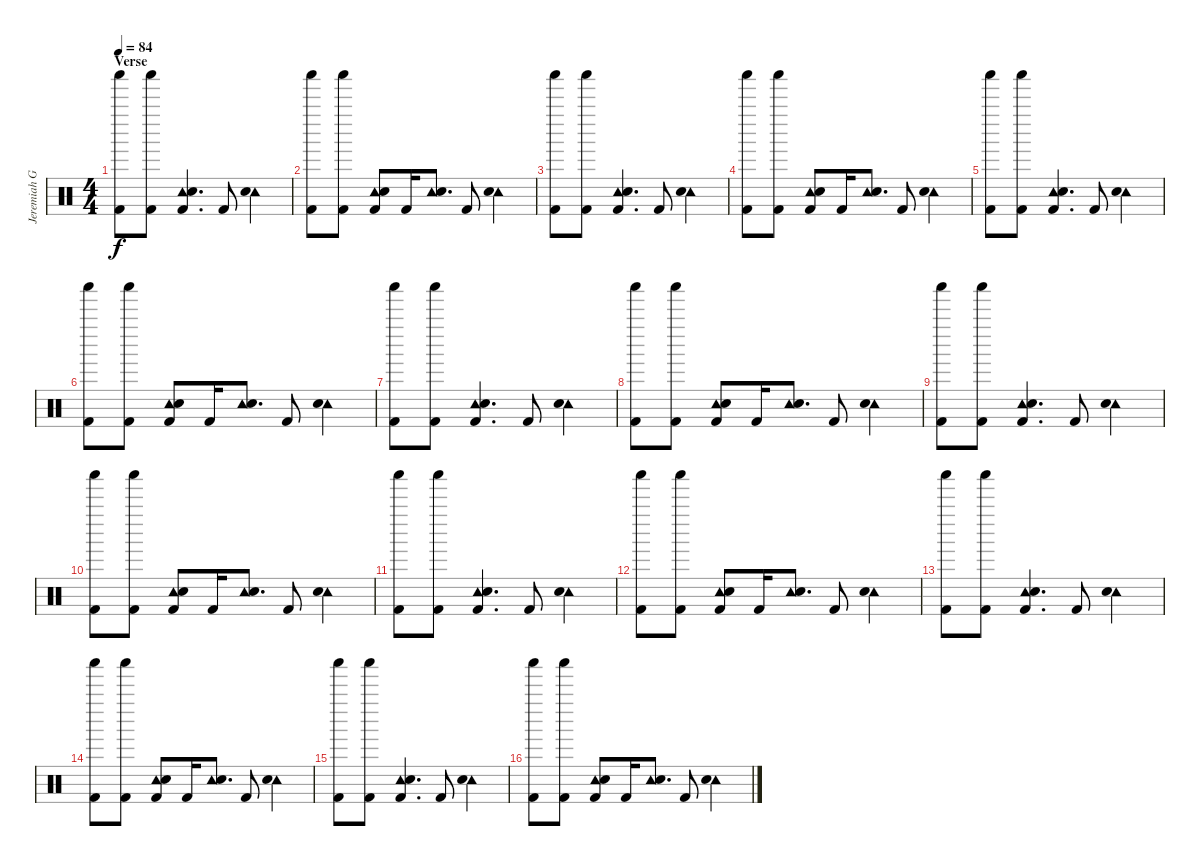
\track ("Jeremiah Green" "Jeremiah G") {instrument percussion}
\staff {score}
\articulation defaults
\ts (4 4)
\section ("" "Verse")
\tempo 84
\clef neutral
\ks c
("Shaker (hit)" "Kick (hit) 2").8{dy f} ("Shaker (hit)" "Kick (hit) 2").8 ("Tambourine (hit)" "Electric Snare (hit)" "Kick (hit) 2").4{d} "Kick (hit) 2".8 ("Tambourine (hit)" "Electric Snare (hit)").4 |
("Shaker (hit)" "Kick (hit) 2").8 ("Shaker (hit)" "Kick (hit) 2").8 ("Tambourine (hit)" "Electric Snare (hit)" "Kick (hit) 2").8 "Kick (hit) 2".16 ("Tambourine (hit)" "Electric Snare (hit)").8{d} "Kick (hit) 2".8 ("Tambourine (hit)" "Electric Snare (hit)").4 |
("Shaker (hit)" "Kick (hit) 2").8 ("Shaker (hit)" "Kick (hit) 2").8 ("Tambourine (hit)" "Electric Snare (hit)" "Kick (hit) 2").4{d} "Kick (hit) 2".8 ("Tambourine (hit)" "Electric Snare (hit)").4 |
("Shaker (hit)" "Kick (hit) 2").8 ("Shaker (hit)" "Kick (hit) 2").8 ("Tambourine (hit)" "Electric Snare (hit)" "Kick (hit) 2").8 "Kick (hit) 2".16 ("Tambourine (hit)" "Electric Snare (hit)").8{d} "Kick (hit) 2".8 ("Tambourine (hit)" "Electric Snare (hit)").4 |
("Shaker (hit)" "Kick (hit) 2").8 ("Shaker (hit)" "Kick (hit) 2").8 ("Tambourine (hit)" "Electric Snare (hit)" "Kick (hit) 2").4{d} "Kick (hit) 2".8 ("Tambourine (hit)" "Electric Snare (hit)").4 |
("Shaker (hit)" "Kick (hit) 2").8 ("Shaker (hit)" "Kick (hit) 2").8 ("Tambourine (hit)" "Electric Snare (hit)" "Kick (hit) 2").8 "Kick (hit) 2".16 ("Tambourine (hit)" "Electric Snare (hit)").8{d} "Kick (hit) 2".8 ("Tambourine (hit)" "Electric Snare (hit)").4 |
("Shaker (hit)" "Kick (hit) 2").8 ("Shaker (hit)" "Kick (hit) 2").8 ("Tambourine (hit)" "Electric Snare (hit)" "Kick (hit) 2").4{d} "Kick (hit) 2".8 ("Tambourine (hit)" "Electric Snare (hit)").4 |
("Shaker (hit)" "Kick (hit) 2").8 ("Shaker (hit)" "Kick (hit) 2").8 ("Tambourine (hit)" "Electric Snare (hit)" "Kick (hit) 2").8 "Kick (hit) 2".16 ("Tambourine (hit)" "Electric Snare (hit)").8{d} "Kick (hit) 2".8 ("Tambourine (hit)" "Electric Snare (hit)").4 |
("Shaker (hit)" "Kick (hit) 2").8 ("Shaker (hit)" "Kick (hit) 2").8 ("Tambourine (hit)" "Electric Snare (hit)" "Kick (hit) 2").4{d} "Kick (hit) 2".8 ("Tambourine (hit)" "Electric Snare (hit)").4 |
("Shaker (hit)" "Kick (hit) 2").8 ("Shaker (hit)" "Kick (hit) 2").8 ("Tambourine (hit)" "Electric Snare (hit)" "Kick (hit) 2").8 "Kick (hit) 2".16 ("Tambourine (hit)" "Electric Snare (hit)").8{d} "Kick (hit) 2".8 ("Tambourine (hit)" "Electric Snare (hit)").4 |
("Shaker (hit)" "Kick (hit) 2").8 ("Shaker (hit)" "Kick (hit) 2").8 ("Tambourine (hit)" "Electric Snare (hit)" "Kick (hit) 2").4{d} "Kick (hit) 2".8 ("Tambourine (hit)" "Electric Snare (hit)").4 |
("Shaker (hit)" "Kick (hit) 2").8 ("Shaker (hit)" "Kick (hit) 2").8 ("Tambourine (hit)" "Electric Snare (hit)" "Kick (hit) 2").8 "Kick (hit) 2".16 ("Tambourine (hit)" "Electric Snare (hit)").8{d} "Kick (hit) 2".8 ("Tambourine (hit)" "Electric Snare (hit)").4 |
("Shaker (hit)" "Kick (hit) 2").8 ("Shaker (hit)" "Kick (hit) 2").8 ("Tambourine (hit)" "Electric Snare (hit)" "Kick (hit) 2").4{d} "Kick (hit) 2".8 ("Tambourine (hit)" "Electric Snare (hit)").4 |
("Shaker (hit)" "Kick (hit) 2").8 ("Shaker (hit)" "Kick (hit) 2").8 ("Tambourine (hit)" "Electric Snare (hit)" "Kick (hit) 2").8 "Kick (hit) 2".16 ("Tambourine (hit)" "Electric Snare (hit)").8{d} "Kick (hit) 2".8 ("Tambourine (hit)" "Electric Snare (hit)").4 |
("Shaker (hit)" "Kick (hit) 2").8 ("Shaker (hit)" "Kick (hit) 2").8 ("Tambourine (hit)" "Electric Snare (hit)" "Kick (hit) 2").4{d} "Kick (hit) 2".8 ("Tambourine (hit)" "Electric Snare (hit)").4 |
("Shaker (hit)" "Kick (hit) 2").8 ("Shaker (hit)" "Kick (hit) 2").8 ("Tambourine (hit)" "Electric Snare (hit)" "Kick (hit) 2").8 "Kick (hit) 2".16 ("Tambourine (hit)" "Electric Snare (hit)").8{d} "Kick (hit) 2".8 ("Tambourine (hit)" "Electric Snare (hit)").4
